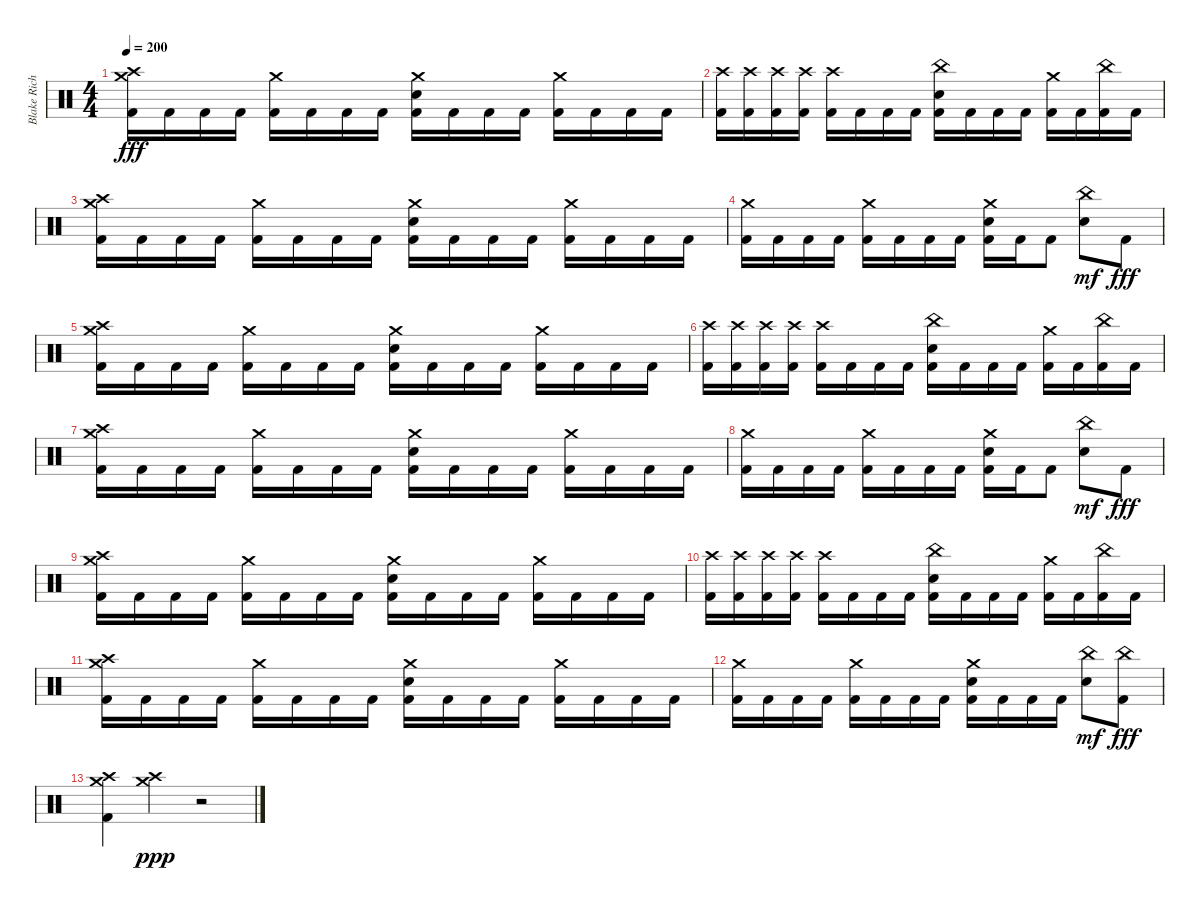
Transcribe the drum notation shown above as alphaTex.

\track ("Blake Richardson" "Blake Rich") {instrument percussion}
\staff {score}
\articulation defaults
\ts (4 4)
\tempo 200
\clef neutral
\ks c
("Crash medium (hit)" "Crash high (hit)" "Kick (hit) 2").16{dy fff} "Kick (hit) 2".16 "Kick (hit) 2".16 "Kick (hit) 2".16 ("Crash medium (hit)" "Kick (hit) 2").16 "Kick (hit) 2".16 "Kick (hit) 2".16 "Kick (hit) 2".16 ("Crash medium (hit)" "Electric Snare (hit)" "Kick (hit) 2").16 "Kick (hit) 2".16 "Kick (hit) 2".16 "Kick (hit) 2".16 ("Crash medium (hit)" "Kick (hit) 2").16 "Kick (hit) 2".16 "Kick (hit) 2".16 "Kick (hit) 2".16 |
("Crash high (hit)" "Kick (hit) 2").16 ("Crash high (hit)" "Kick (hit) 2").16 ("Crash high (hit)" "Kick (hit) 2").16 ("Crash high (hit)" "Kick (hit) 2").16 ("Crash high (hit)" "Kick (hit) 2").16 "Kick (hit) 2".16 "Kick (hit) 2".16 "Kick (hit) 2".16 ("China (hit)" "Electric Snare (hit)" "Kick (hit) 2").16 "Kick (hit) 2".16 "Kick (hit) 2".16 "Kick (hit) 2".16 ("Crash medium (hit)" "Kick (hit) 2").16 "Kick (hit) 2".16 ("China (hit)" "Kick (hit) 2").16 "Kick (hit) 2".16 |
("Crash medium (hit)" "Crash high (hit)" "Kick (hit) 2").16 "Kick (hit) 2".16 "Kick (hit) 2".16 "Kick (hit) 2".16 ("Crash medium (hit)" "Kick (hit) 2").16 "Kick (hit) 2".16 "Kick (hit) 2".16 "Kick (hit) 2".16 ("Crash medium (hit)" "Electric Snare (hit)" "Kick (hit) 2").16 "Kick (hit) 2".16 "Kick (hit) 2".16 "Kick (hit) 2".16 ("Crash medium (hit)" "Kick (hit) 2").16 "Kick (hit) 2".16 "Kick (hit) 2".16 "Kick (hit) 2".16 |
("Crash medium (hit)" "Kick (hit) 2").16 "Kick (hit) 2".16 "Kick (hit) 2".16 "Kick (hit) 2".16 ("Crash medium (hit)" "Kick (hit) 2").16 "Kick (hit) 2".16 "Kick (hit) 2".16 "Kick (hit) 2".16 ("Crash medium (hit)" "Electric Snare (hit)" "Kick (hit) 2").16 "Kick (hit) 2".16 "Kick (hit) 2".8 ("China (hit)" "Electric Snare (hit)").8{dy mf} "Kick (hit) 2".8{dy fff} |
("Crash medium (hit)" "Crash high (hit)" "Kick (hit) 2").16 "Kick (hit) 2".16 "Kick (hit) 2".16 "Kick (hit) 2".16 ("Crash medium (hit)" "Kick (hit) 2").16 "Kick (hit) 2".16 "Kick (hit) 2".16 "Kick (hit) 2".16 ("Crash medium (hit)" "Electric Snare (hit)" "Kick (hit) 2").16 "Kick (hit) 2".16 "Kick (hit) 2".16 "Kick (hit) 2".16 ("Crash medium (hit)" "Kick (hit) 2").16 "Kick (hit) 2".16 "Kick (hit) 2".16 "Kick (hit) 2".16 |
("Crash high (hit)" "Kick (hit) 2").16 ("Crash high (hit)" "Kick (hit) 2").16 ("Crash high (hit)" "Kick (hit) 2").16 ("Crash high (hit)" "Kick (hit) 2").16 ("Crash high (hit)" "Kick (hit) 2").16 "Kick (hit) 2".16 "Kick (hit) 2".16 "Kick (hit) 2".16 ("China (hit)" "Electric Snare (hit)" "Kick (hit) 2").16 "Kick (hit) 2".16 "Kick (hit) 2".16 "Kick (hit) 2".16 ("Crash medium (hit)" "Kick (hit) 2").16 "Kick (hit) 2".16 ("China (hit)" "Kick (hit) 2").16 "Kick (hit) 2".16 |
("Crash medium (hit)" "Crash high (hit)" "Kick (hit) 2").16 "Kick (hit) 2".16 "Kick (hit) 2".16 "Kick (hit) 2".16 ("Crash medium (hit)" "Kick (hit) 2").16 "Kick (hit) 2".16 "Kick (hit) 2".16 "Kick (hit) 2".16 ("Crash medium (hit)" "Electric Snare (hit)" "Kick (hit) 2").16 "Kick (hit) 2".16 "Kick (hit) 2".16 "Kick (hit) 2".16 ("Crash medium (hit)" "Kick (hit) 2").16 "Kick (hit) 2".16 "Kick (hit) 2".16 "Kick (hit) 2".16 |
("Crash medium (hit)" "Kick (hit) 2").16 "Kick (hit) 2".16 "Kick (hit) 2".16 "Kick (hit) 2".16 ("Crash medium (hit)" "Kick (hit) 2").16 "Kick (hit) 2".16 "Kick (hit) 2".16 "Kick (hit) 2".16 ("Crash medium (hit)" "Electric Snare (hit)" "Kick (hit) 2").16 "Kick (hit) 2".16 "Kick (hit) 2".8 ("China (hit)" "Electric Snare (hit)").8{dy mf} "Kick (hit) 2".8{dy fff} |
("Crash medium (hit)" "Crash high (hit)" "Kick (hit) 2").16 "Kick (hit) 2".16 "Kick (hit) 2".16 "Kick (hit) 2".16 ("Crash medium (hit)" "Kick (hit) 2").16 "Kick (hit) 2".16 "Kick (hit) 2".16 "Kick (hit) 2".16 ("Crash medium (hit)" "Electric Snare (hit)" "Kick (hit) 2").16 "Kick (hit) 2".16 "Kick (hit) 2".16 "Kick (hit) 2".16 ("Crash medium (hit)" "Kick (hit) 2").16 "Kick (hit) 2".16 "Kick (hit) 2".16 "Kick (hit) 2".16 |
("Crash high (hit)" "Kick (hit) 2").16 ("Crash high (hit)" "Kick (hit) 2").16 ("Crash high (hit)" "Kick (hit) 2").16 ("Crash high (hit)" "Kick (hit) 2").16 ("Crash high (hit)" "Kick (hit) 2").16 "Kick (hit) 2".16 "Kick (hit) 2".16 "Kick (hit) 2".16 ("China (hit)" "Electric Snare (hit)" "Kick (hit) 2").16 "Kick (hit) 2".16 "Kick (hit) 2".16 "Kick (hit) 2".16 ("Crash medium (hit)" "Kick (hit) 2").16 "Kick (hit) 2".16 ("China (hit)" "Kick (hit) 2").16 "Kick (hit) 2".16 |
("Crash medium (hit)" "Crash high (hit)" "Kick (hit) 2").16 "Kick (hit) 2".16 "Kick (hit) 2".16 "Kick (hit) 2".16 ("Crash medium (hit)" "Kick (hit) 2").16 "Kick (hit) 2".16 "Kick (hit) 2".16 "Kick (hit) 2".16 ("Crash medium (hit)" "Electric Snare (hit)" "Kick (hit) 2").16 "Kick (hit) 2".16 "Kick (hit) 2".16 "Kick (hit) 2".16 ("Crash medium (hit)" "Kick (hit) 2").16 "Kick (hit) 2".16 "Kick (hit) 2".16 "Kick (hit) 2".16 |
("Crash medium (hit)" "Kick (hit) 2").16 "Kick (hit) 2".16 "Kick (hit) 2".16 "Kick (hit) 2".16 ("Crash medium (hit)" "Kick (hit) 2").16 "Kick (hit) 2".16 "Kick (hit) 2".16 "Kick (hit) 2".16 ("Crash medium (hit)" "Electric Snare (hit)" "Kick (hit) 2").16 "Kick (hit) 2".16 "Kick (hit) 2".16 "Kick (hit) 2".16 ("China (hit)" "Electric Snare (hit)").8{dy mf} ("China (hit)" "Kick (hit) 2").8{dy fff} |
("Crash medium (hit)" "Crash high (hit)" "Kick (hit) 2").4 ("Crash medium (hit)" "Crash high (hit)").4{dy ppp} r.2
